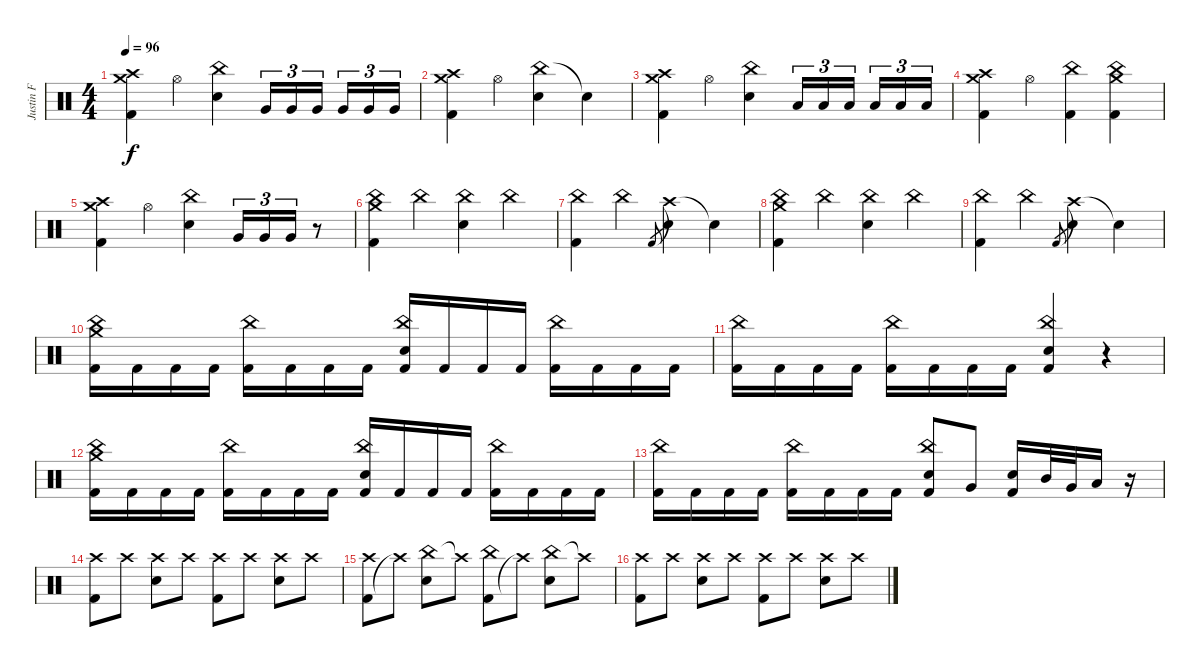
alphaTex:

\track ("Justin F" "Justin F") {instrument percussion}
\staff {score}
\articulation defaults
\ts (4 4)
\tempo 96
\clef neutral
\ks c
("Kick (hit) 2" "Crash high (hit)" "Crash medium (hit)").4{dy f} "Hi-Hat (open)".4 ("China (hit)" "Electric Snare (hit)").4 "Very Low Tom (hit)".16{tu (3 2)} "Very Low Tom (hit)".16{tu (3 2)} "Very Low Tom (hit)".16{tu (3 2) beam splitsecondary} "Very Low Tom (hit)".16{tu (3 2)} "Very Low Tom (hit)".16{tu (3 2)} "Very Low Tom (hit)".16{tu (3 2)} |
("Kick (hit) 2" "Crash high (hit)" "Crash medium (hit)").4 "Hi-Hat (open)".4 ("China (hit)" "Electric Snare (hit)").4 "Snare (hit)"{t}.4 |
("Kick (hit) 2" "Crash high (hit)" "Crash medium (hit)").4 "Hi-Hat (open)".4 ("China (hit)" "Electric Snare (hit)").4 "Low Floor Tom (hit)".16{tu (3 2)} "Low Floor Tom (hit)".16{tu (3 2)} "Low Floor Tom (hit)".16{tu (3 2) beam splitsecondary} "Low Floor Tom (hit)".16{tu (3 2)} "Low Floor Tom (hit)".16{tu (3 2)} "Low Floor Tom (hit)".16{tu (3 2)} |
("Kick (hit) 2" "Crash high (hit)" "Crash medium (hit)").4 "Hi-Hat (open)".4 ("Kick (hit) 2" "China (hit)").4 ("Kick (hit) 2" "China (hit)" "Crash medium (hit)").4 |
("Kick (hit) 2" "Crash high (hit)" "Crash medium (hit)").4 "Hi-Hat (open)".4 ("China (hit)" "Electric Snare (hit)").4 "Very Low Tom (hit)".16{tu (3 2)} "Very Low Tom (hit)".16{tu (3 2)} "Very Low Tom (hit)".16{tu (3 2)} r.8 |
("Kick (hit) 2" "China (hit)" "Crash medium (hit)").4 "China (hit)".4 ("China (hit)" "Electric Snare (hit)").4 "China (hit)".4 |
("Kick (hit) 2" "China (hit)").4 "China (hit)".4 "Kick (hit) 2"{h}.8{gr} ("Crash high (hit)"{t} "Electric Snare (hit)").4 "Snare (hit)"{t}.4 |
("Kick (hit) 2" "China (hit)" "Crash medium (hit)").4 "China (hit)".4 ("China (hit)" "Electric Snare (hit)").4 "China (hit)".4 |
("Kick (hit) 2" "China (hit)").4 "China (hit)".4 "Kick (hit) 2"{h}.8{gr} ("Crash high (hit)"{t} "Electric Snare (hit)").4 "Snare (hit)"{t}.4 |
("Kick (hit) 2" "China (hit)" "Crash medium (hit)").16 "Kick (hit) 2".16 "Kick (hit) 2".16 "Kick (hit) 2".16 ("Kick (hit) 2" "China (hit)").16 "Kick (hit) 2".16 "Kick (hit) 2".16 "Kick (hit) 2".16 ("Kick (hit) 2" "China (hit)" "Electric Snare (hit)").16 "Kick (hit) 2".16 "Kick (hit) 2".16 "Kick (hit) 2".16 ("Kick (hit) 2" "China (hit)").16 "Kick (hit) 2".16 "Kick (hit) 2".16 "Kick (hit) 2".16 |
("Kick (hit) 2" "China (hit)").16 "Kick (hit) 2".16 "Kick (hit) 2".16 "Kick (hit) 2".16 ("Kick (hit) 2" "China (hit)").16 "Kick (hit) 2".16 "Kick (hit) 2".16 "Kick (hit) 2".16 ("Kick (hit) 2" "China (hit)" "Electric Snare (hit)").4 r.4 |
("Kick (hit) 2" "China (hit)" "Crash medium (hit)").16 "Kick (hit) 2".16 "Kick (hit) 2".16 "Kick (hit) 2".16 ("Kick (hit) 2" "China (hit)").16 "Kick (hit) 2".16 "Kick (hit) 2".16 "Kick (hit) 2".16 ("Kick (hit) 2" "China (hit)" "Electric Snare (hit)").16 "Kick (hit) 2".16 "Kick (hit) 2".16 "Kick (hit) 2".16 ("Kick (hit) 2" "China (hit)").16 "Kick (hit) 2".16 "Kick (hit) 2".16 "Kick (hit) 2".16 |
("Kick (hit) 2" "China (hit)").16 "Kick (hit) 2".16 "Kick (hit) 2".16 "Kick (hit) 2".16 ("Kick (hit) 2" "China (hit)").16 "Kick (hit) 2".16 "Kick (hit) 2".16 "Kick (hit) 2".16 ("Kick (hit) 2" "China (hit)" "Electric Snare (hit)").8 "Very Low Tom (hit)".8 ("Kick (hit) 2" "Electric Snare (hit)").16 "Mid Tom (hit)".32 "Very Low Tom (hit)".32 "Low Floor Tom (hit)".16 r.16 |
("Kick (hit) 2" "Crash high (hit)").8 "Crash high (hit)".8 ("Crash high (hit)" "Electric Snare (hit)").8 "Crash high (hit)".8 ("Kick (hit) 2" "Crash high (hit)").8 "Crash high (hit)".8 ("Crash high (hit)" "Electric Snare (hit)").8 "Crash high (hit)".8 |
("Kick (hit) 2" "Crash high (hit)").8 "Crash high (hit)"{t}.8 ("China (hit)" "Electric Snare (hit)").8 "Crash high (hit)"{t}.8 ("Kick (hit) 2" "China (hit)").8 "Crash high (hit)"{t}.8 ("China (hit)" "Electric Snare (hit)").8 "Crash high (hit)"{t}.8 |
("Kick (hit) 2" "Crash high (hit)").8 "Crash high (hit)".8 ("Crash high (hit)" "Electric Snare (hit)").8 "Crash high (hit)".8 ("Kick (hit) 2" "Crash high (hit)").8 "Crash high (hit)".8 ("Crash high (hit)" "Electric Snare (hit)").8 "Crash high (hit)".8
